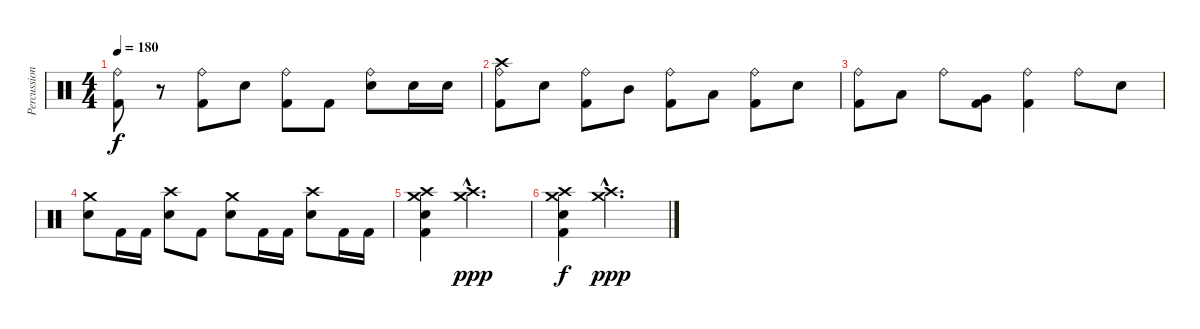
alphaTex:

\track ("Percussion" "Percussion") {instrument percussion}
\staff {score}
\articulation defaults
\ts (4 4)
\tempo 180
\clef neutral
\ks c
("Ride (bell)" "Kick (hit) 2").8{dy f} r.8 ("Ride (bell)" "Kick (hit) 2").8 "Snare (hit) 2".8 ("Ride (bell)" "Kick (hit) 2").8 "Kick (hit) 2".8 ("Ride (bell)" "Snare (hit) 2").8 "Snare (hit) 2".16 "Snare (hit) 2".16 |
("Crash high (hit)" "Ride (bell)" "Kick (hit) 2").8 "Snare (hit) 2".8 ("Ride (bell)" "Kick (hit) 2").8 "Mid Tom (hit)".8 ("Ride (bell)" "Kick (hit) 2").8 "Low Tom (hit)".8 ("Ride (bell)" "Kick (hit) 2").8 "Snare (hit) 2".8 |
("Ride (bell)" "Kick (hit) 2").8 "Low Tom (hit)".8 "Ride (bell)".8 ("Very Low Tom (hit)" "Kick (hit) 2").8 ("Ride (bell)" "Kick (hit) 2").4 "Ride (bell)".8 "Snare (hit) 2".8 |
("Crash medium (hit)" "Snare (hit) 2").8 "Kick (hit) 2".16 "Kick (hit) 2".16 ("Crash high (hit)" "Snare (hit) 2").8 "Kick (hit) 2".8 ("Crash medium (hit)" "Snare (hit) 2").8 "Kick (hit) 2".16 "Kick (hit) 2".16 ("Crash high (hit)" "Snare (hit) 2").8 "Kick (hit) 2".16 "Kick (hit) 2".16 |
("Crash high (hit)" "Crash medium (hit)" "Snare (hit) 2" "Kick (hit) 2").4 ("Crash high (hit)"{hac} "Crash medium (hit)"{hac}).2{d dy ppp} |
("Crash high (hit)" "Crash medium (hit)" "Snare (hit) 2" "Kick (hit) 2").4{dy f} ("Crash high (hit)"{hac} "Crash medium (hit)"{hac}).2{d dy ppp}
